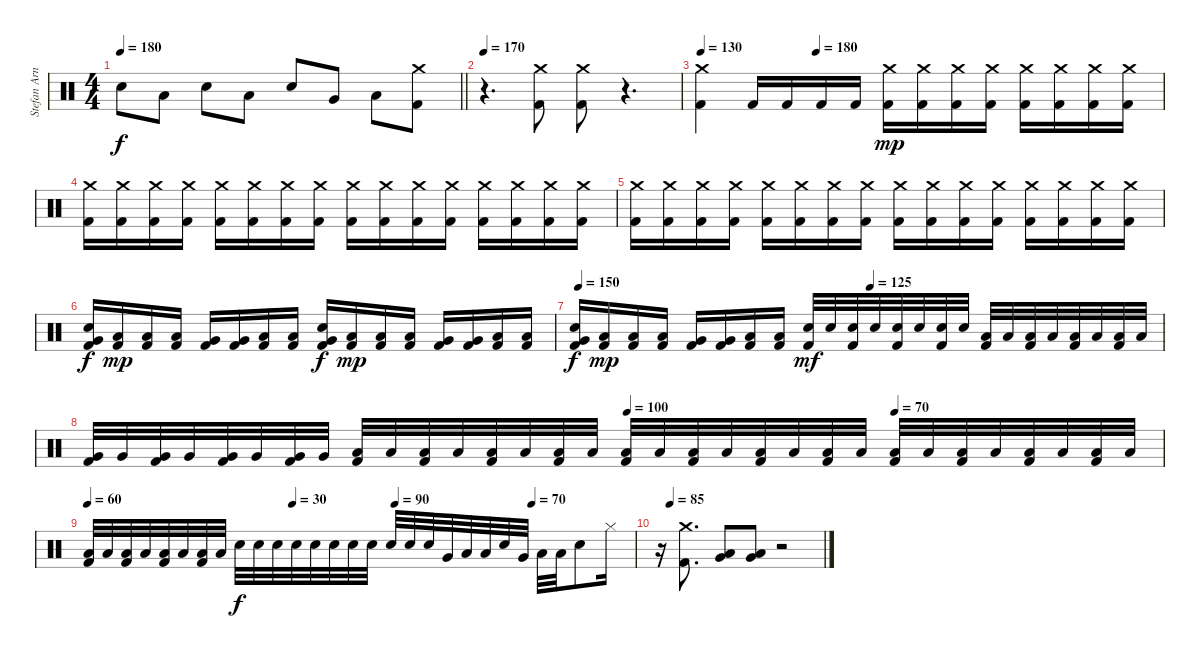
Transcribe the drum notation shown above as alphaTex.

\track ("Stefan Arnold" "Stefan Arn") {instrument percussion}
\staff {score}
\articulation defaults
\ts (4 4)
\tempo 180
\clef neutral
\barLineRight lightlight
\ks c "Electric Snare (hit)".8{dy f} "Low Tom (hit)".8 "Electric Snare (hit)".8 "Low Tom (hit)".8 "Electric Snare (hit)".8 "Very Low Tom (hit)".8 "Low Floor Tom (hit)".8
("Crash medium (hit)" "Kick (hit) 2").8 |
\tempo 170
r.4{d} ("Crash medium (hit)" "Kick (hit) 2").8 ("Crash medium (hit)" "Kick (hit) 2").8 r.4{d} |
\tempo 130
\tempo (180 0.25)
("Crash medium (hit)" "Kick (hit) 2").4 "Kick (hit) 2".16 "Kick (hit) 2".16 "Kick (hit) 2".16 "Kick (hit) 2".16 ("Crash medium (hit)" "Kick (hit) 2").16{dy mp} ("Crash medium (hit)" "Kick (hit) 2").16 ("Crash medium (hit)" "Kick (hit) 2").16 ("Crash medium (hit)" "Kick (hit) 2").16 ("Crash medium (hit)" "Kick (hit) 2").16 ("Crash medium (hit)" "Kick (hit) 2").16 ("Crash medium (hit)" "Kick (hit) 2").16 ("Crash medium (hit)" "Kick (hit) 2").16 |
("Crash medium (hit)" "Kick (hit) 2").16 ("Crash medium (hit)" "Kick (hit) 2").16 ("Crash medium (hit)" "Kick (hit) 2").16 ("Crash medium (hit)" "Kick (hit) 2").16 ("Crash medium (hit)" "Kick (hit) 2").16 ("Crash medium (hit)" "Kick (hit) 2").16 ("Crash medium (hit)" "Kick (hit) 2").16 ("Crash medium (hit)" "Kick (hit) 2").16 ("Crash medium (hit)" "Kick (hit) 2").16 ("Crash medium (hit)" "Kick (hit) 2").16 ("Crash medium (hit)" "Kick (hit) 2").16 ("Crash medium (hit)" "Kick (hit) 2").16 ("Crash medium (hit)" "Kick (hit) 2").16 ("Crash medium (hit)" "Kick (hit) 2").16 ("Crash medium (hit)" "Kick (hit) 2").16 ("Crash medium (hit)" "Kick (hit) 2").16 |
("Crash medium (hit)" "Kick (hit) 2").16 ("Crash medium (hit)" "Kick (hit) 2").16 ("Crash medium (hit)" "Kick (hit) 2").16 ("Crash medium (hit)" "Kick (hit) 2").16 ("Crash medium (hit)" "Kick (hit) 2").16 ("Crash medium (hit)" "Kick (hit) 2").16 ("Crash medium (hit)" "Kick (hit) 2").16 ("Crash medium (hit)" "Kick (hit) 2").16 ("Crash medium (hit)" "Kick (hit) 2").16 ("Crash medium (hit)" "Kick (hit) 2").16 ("Crash medium (hit)" "Kick (hit) 2").16 ("Crash medium (hit)" "Kick (hit) 2").16 ("Crash medium (hit)" "Kick (hit) 2").16 ("Crash medium (hit)" "Kick (hit) 2").16 ("Crash medium (hit)" "Kick (hit) 2").16 ("Crash medium (hit)" "Kick (hit) 2").16 |
("Electric Snare (hit)" "Very Low Tom (hit)" "Kick (hit) 2").16{dy f} ("Low Tom (hit)" "Kick (hit) 2").16{dy mp} ("Low Tom (hit)" "Kick (hit) 2").16 ("Low Tom (hit)" "Kick (hit) 2").16 ("Very Low Tom (hit)" "Kick (hit) 2").16 ("Very Low Tom (hit)" "Kick (hit) 2").16 ("Low Floor Tom (hit)" "Kick (hit) 2").16 ("Low Floor Tom (hit)" "Kick (hit) 2").16 ("Electric Snare (hit)" "Very Low Tom (hit)" "Kick (hit) 2").16{dy f} ("Low Tom (hit)" "Kick (hit) 2").16{dy mp} ("Low Tom (hit)" "Kick (hit) 2").16 ("Low Tom (hit)" "Kick (hit) 2").16 ("Very Low Tom (hit)" "Kick (hit) 2").16 ("Very Low Tom (hit)" "Kick (hit) 2").16 ("Low Floor Tom (hit)" "Kick (hit) 2").16 ("Low Floor Tom (hit)" "Kick (hit) 2").16 |
\tempo 150
\tempo (125 0.5)
("Electric Snare (hit)" "Very Low Tom (hit)" "Kick (hit) 2").16{dy f} ("Low Tom (hit)" "Kick (hit) 2").16{dy mp} ("Low Tom (hit)" "Kick (hit) 2").16 ("Low Tom (hit)" "Kick (hit) 2").16 ("Very Low Tom (hit)" "Kick (hit) 2").16 ("Very Low Tom (hit)" "Kick (hit) 2").16 ("Low Floor Tom (hit)" "Kick (hit) 2").16 ("Low Floor Tom (hit)" "Kick (hit) 2").16 ("Electric Snare (hit)" "Kick (hit) 2").32{dy mf} "Electric Snare (hit)".32 ("Electric Snare (hit)" "Kick (hit) 2").32 "Electric Snare (hit)".32 ("Electric Snare (hit)" "Kick (hit) 2").32 "Electric Snare (hit)".32 ("Electric Snare (hit)" "Kick (hit) 2").32 "Electric Snare (hit)".32 ("Low Tom (hit)" "Kick (hit) 2").32 "Low Tom (hit)".32 ("Low Tom (hit)" "Kick (hit) 2").32 "Low Tom (hit)".32 ("Low Tom (hit)" "Kick (hit) 2").32 "Low Tom (hit)".32 ("Low Tom (hit)" "Kick (hit) 2").32 "Low Tom (hit)".32 |
\tempo (100 0.5)
\tempo (70 0.75)
("Very Low Tom (hit)" "Kick (hit) 2").32 "Very Low Tom (hit)".32 ("Very Low Tom (hit)" "Kick (hit) 2").32 "Very Low Tom (hit)".32 ("Very Low Tom (hit)" "Kick (hit) 2").32 "Very Low Tom (hit)".32 ("Very Low Tom (hit)" "Kick (hit) 2").32 "Very Low Tom (hit)".32 ("Low Floor Tom (hit)" "Kick (hit) 2").32 "Low Floor Tom (hit)".32 ("Low Floor Tom (hit)" "Kick (hit) 2").32 "Low Floor Tom (hit)".32 ("Low Floor Tom (hit)" "Kick (hit) 2").32 "Low Floor Tom (hit)".32 ("Low Floor Tom (hit)" "Kick (hit) 2").32 "Low Floor Tom (hit)".32 ("Low Floor Tom (hit)" "Kick (hit) 2").32 "Low Floor Tom (hit)".32 ("Low Floor Tom (hit)" "Kick (hit) 2").32 "Low Floor Tom (hit)".32 ("Low Floor Tom (hit)" "Kick (hit) 2").32 "Low Floor Tom (hit)".32 ("Low Floor Tom (hit)" "Kick (hit) 2").32 "Low Floor Tom (hit)".32 ("Low Floor Tom (hit)" "Kick (hit) 2").32 "Low Floor Tom (hit)".32 ("Low Floor Tom (hit)" "Kick (hit) 2").32 "Low Floor Tom (hit)".32 ("Low Floor Tom (hit)" "Kick (hit) 2").32 "Low Floor Tom (hit)".32 ("Low Floor Tom (hit)" "Kick (hit) 2").32 "Low Floor Tom (hit)".32 |
\tempo 60
\tempo (30 0.375)
\tempo (90 0.5625)
\tempo (70 0.8125)
("Low Floor Tom (hit)" "Kick (hit) 2").32 "Low Floor Tom (hit)".32 ("Low Floor Tom (hit)" "Kick (hit) 2").32 "Low Floor Tom (hit)".32 ("Low Floor Tom (hit)" "Kick (hit) 2").32 "Low Floor Tom (hit)".32 ("Low Floor Tom (hit)" "Kick (hit) 2").32 "Low Floor Tom (hit)".32 "Electric Snare (hit)".32{dy f} "Electric Snare (hit)".32 "Electric Snare (hit)".32 "Electric Snare (hit)".32 "Electric Snare (hit)".32 "Electric Snare (hit)".32 "Electric Snare (hit)".32 "Electric Snare (hit)".32 "Electric Snare (hit)".32 "Electric Snare (hit)".32 "Electric Snare (hit)".32 "Very Low Tom (hit)".32 "Low Floor Tom (hit)".32 "Low Floor Tom (hit)".32 "Electric Snare (hit)".32 "Very Low Tom (hit)".32 "Low Floor Tom (hit)".32 "Low Floor Tom (hit)".32 "Electric Snare (hit)".8 "Hi-Hat (closed)".16 |
\tempo (85 0.0625)
r.16 ("Crash medium (hit)" "Kick (hit) 2").8{d} ("Very Low Tom (hit)" "Low Floor Tom (hit)").8 ("Very Low Tom (hit)" "Low Floor Tom (hit)").8 r.2
